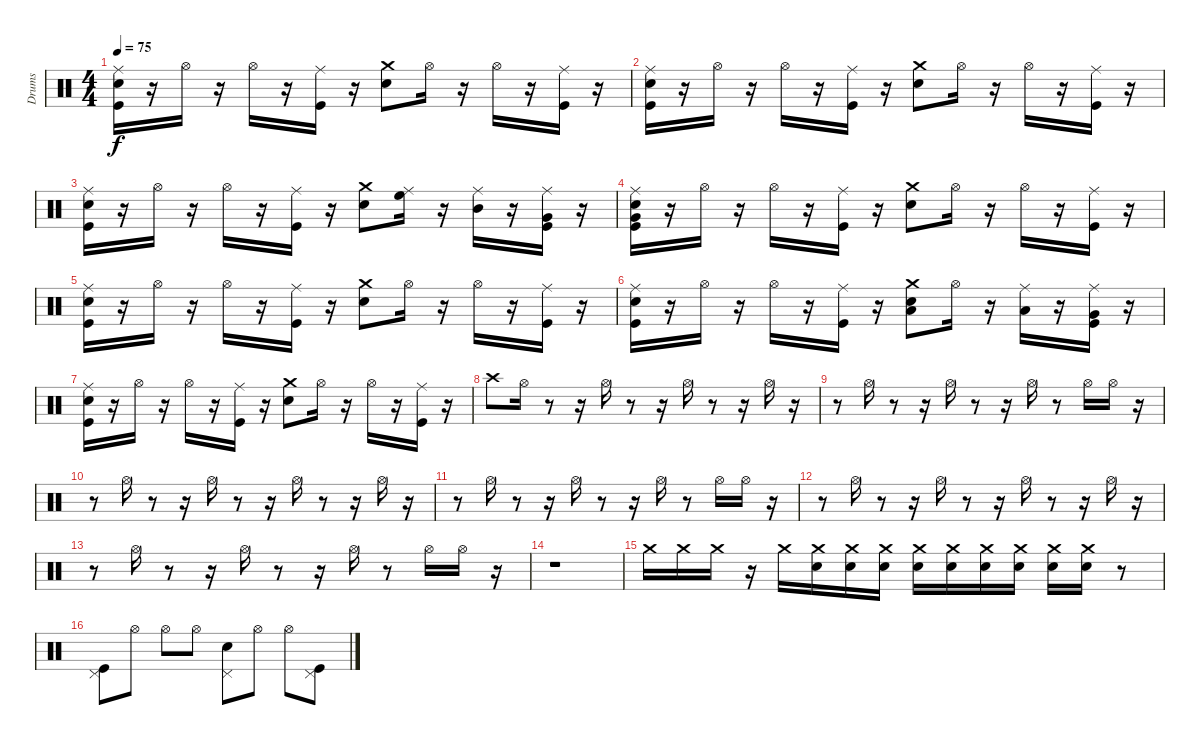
\track ("Drums" "Drums") {instrument percussion}
\staff {score}
\articulation defaults
\ts (4 4)
\tempo 75
\clef neutral
\ks c
("Snare (hit) 2" "Ride (middle)" "Kick (hit)").16{dy f} r.16 "Hi-Hat (open)".16 r.16 "Hi-Hat (open)".16 r.16 ("Kick (hit)" "Ride (middle)").16 r.16 ("Snare (hit) 2" "Crash medium (hit)").8 "Hi-Hat (open)".16 r.16 "Hi-Hat (open)".16 r.16 ("Kick (hit)" "Ride (middle)").16 r.16 |
("Snare (hit) 2" "Ride (middle)" "Kick (hit)").16 r.16 "Hi-Hat (open)".16 r.16 "Hi-Hat (open)".16 r.16 ("Kick (hit)" "Ride (middle)").16 r.16 ("Snare (hit) 2" "Crash medium (hit)").8 "Hi-Hat (open)".16 r.16 "Hi-Hat (open)".16 r.16 ("Kick (hit)" "Ride (middle)").16 r.16 |
("Snare (hit) 2" "Ride (middle)" "Kick (hit)").16 r.16 "Hi-Hat (open)".16 r.16 "Hi-Hat (open)".16 r.16 ("Kick (hit)" "Ride (middle)").16 r.16 ("Snare (hit) 2" "Crash medium (hit)").8 ("High Floor Tom (hit)" "Ride (middle)").16 r.16 ("Mid Tom (hit)" "Ride (middle)").16 r.16 ("Very Low Tom (hit)" "Kick (hit)" "Ride (middle)").16 r.16 |
("Very Low Tom (hit)" "Snare (hit) 2" "Ride (middle)" "Kick (hit)").16 r.16 "Hi-Hat (open)".16 r.16 "Hi-Hat (open)".16 r.16 ("Kick (hit)" "Ride (middle)").16 r.16 ("Snare (hit) 2" "Crash medium (hit)").8 "Hi-Hat (open)".16 r.16 "Hi-Hat (open)".16 r.16 ("Kick (hit)" "Ride (middle)").16 r.16 |
("Snare (hit) 2" "Ride (middle)" "Kick (hit)").16 r.16 "Hi-Hat (open)".16 r.16 "Hi-Hat (open)".16 r.16 ("Kick (hit)" "Ride (middle)").16 r.16 ("Snare (hit) 2" "Crash medium (hit)").8 "Hi-Hat (open)".16 r.16 "Hi-Hat (open)".16 r.16 ("Kick (hit)" "Ride (middle)").16 r.16 |
("Snare (hit) 2" "Ride (middle)" "Kick (hit)").16 r.16 "Hi-Hat (open)".16 r.16 "Hi-Hat (open)".16 r.16 ("Kick (hit)" "Ride (middle)").16 r.16 ("Low Tom (hit)" "Snare (hit) 2" "Crash medium (hit)").8 "Hi-Hat (open)".16 r.16 ("Low Tom (hit)" "Ride (middle)").16 r.16 ("Very Low Tom (hit)" "Kick (hit)" "Ride (middle)").16 r.16 |
("Snare (hit) 2" "Ride (middle)" "Kick (hit)").16 r.16 "Hi-Hat (open)".16 r.16 "Hi-Hat (open)".16 r.16 ("Kick (hit)" "Ride (middle)").16 r.16 ("Snare (hit) 2" "Crash medium (hit)").8 "Hi-Hat (open)".16 r.16 "Hi-Hat (open)".16 r.16 ("Kick (hit)" "Ride (middle)").16 r.16 |
"Crash high (hit)".8 "Hi-Hat (open)".16 r.8 r.16 "Hi-Hat (open)".16 r.8 r.16 "Hi-Hat (open)".16 r.8 r.16 "Hi-Hat (open)".16 r.16 |
r.8 "Hi-Hat (open)".16 r.8 r.16 "Hi-Hat (open)".16 r.8 r.16 "Hi-Hat (open)".16 r.8 "Hi-Hat (open)".16 "Hi-Hat (open)".16 r.16 |
r.8 "Hi-Hat (open)".16 r.8 r.16 "Hi-Hat (open)".16 r.8 r.16 "Hi-Hat (open)".16 r.8 r.16 "Hi-Hat (open)".16 r.16 |
r.8 "Hi-Hat (open)".16 r.8 r.16 "Hi-Hat (open)".16 r.8 r.16 "Hi-Hat (open)".16 r.8 "Hi-Hat (open)".16 "Hi-Hat (open)".16 r.16 |
r.8 "Hi-Hat (open)".16 r.8 r.16 "Hi-Hat (open)".16 r.8 r.16 "Hi-Hat (open)".16 r.8 r.16 "Hi-Hat (open)".16 r.16 |
r.8 "Hi-Hat (open)".16 r.8 r.16 "Hi-Hat (open)".16 r.8 r.16 "Hi-Hat (open)".16 r.8 "Hi-Hat (open)".16 "Hi-Hat (open)".16 r.16 |
r.1 |
"Crash medium (hit)".16 "Crash medium (hit)".16 "Crash medium (hit)".16 r.16 "Crash medium (hit)".16 ("Snare (hit)" "Crash medium (hit)").16 ("Snare (hit)" "Crash medium (hit)").16 ("Snare (hit)" "Crash medium (hit)").16 ("Snare (hit)" "Crash medium (hit)").16 ("Snare (hit)" "Crash medium (hit)").16 ("Snare (hit)" "Crash medium (hit)").16 ("Snare (hit)" "Crash medium (hit)").16 ("Snare (hit)" "Crash medium (hit)").16 ("Snare (hit)" "Crash medium (hit)").16 r.8 |
("Pedal Hi-Hat (hit)" "Kick (hit)").8 "Hi-Hat (open)".8 "Hi-Hat (open)".8 "Hi-Hat (open)".8 ("Snare (hit) 2" "Pedal Hi-Hat (hit)").8 "Hi-Hat (open)".8 "Hi-Hat (open)".8 ("Kick (hit)" "Pedal Hi-Hat (hit)").8
